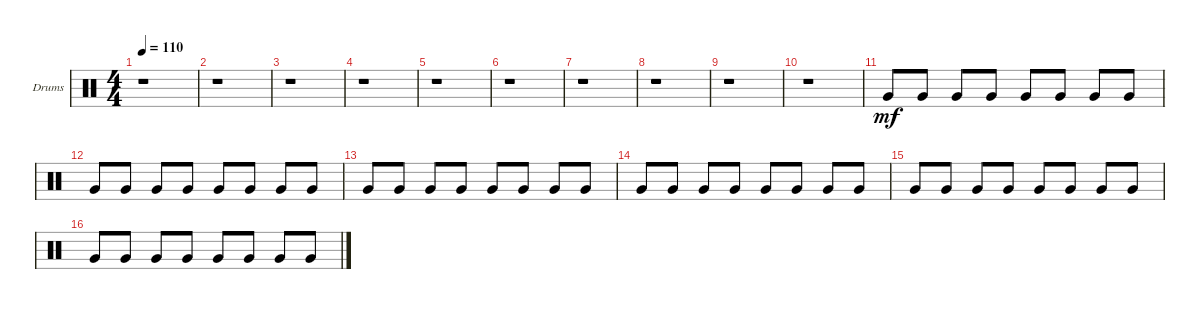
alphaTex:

\defaultSystemsLayout 4
\bracketExtendMode groupsimilarinstruments
\firstSystemTrackNameOrientation horizontal
\otherSystemsTrackNameOrientation horizontal
\track ("Fabrizio" "Drums") {instrument percussion}
\staff {score}
\articulation defaults
\ts (4 4)
\tempo 110
\clef neutral
\ks c
r.1{dy mf} |
r.1 |
r.1 |
r.1 |
r.1 |
r.1 |
r.1 |
r.1 |
r.1 |
r.1 |
"Very Low Tom (hit)".8 "Very Low Tom (hit)".8 "Very Low Tom (hit)".8 "Very Low Tom (hit)".8 "Very Low Tom (hit)".8 "Very Low Tom (hit)".8 "Very Low Tom (hit)".8 "Very Low Tom (hit)".8 |
"Very Low Tom (hit)".8 "Very Low Tom (hit)".8 "Very Low Tom (hit)".8 "Very Low Tom (hit)".8 "Very Low Tom (hit)".8 "Very Low Tom (hit)".8 "Very Low Tom (hit)".8 "Very Low Tom (hit)".8 |
"Very Low Tom (hit)".8 "Very Low Tom (hit)".8 "Very Low Tom (hit)".8 "Very Low Tom (hit)".8 "Very Low Tom (hit)".8 "Very Low Tom (hit)".8 "Very Low Tom (hit)".8 "Very Low Tom (hit)".8 |
"Very Low Tom (hit)".8 "Very Low Tom (hit)".8 "Very Low Tom (hit)".8 "Very Low Tom (hit)".8 "Very Low Tom (hit)".8 "Very Low Tom (hit)".8 "Very Low Tom (hit)".8 "Very Low Tom (hit)".8 |
"Very Low Tom (hit)".8 "Very Low Tom (hit)".8 "Very Low Tom (hit)".8 "Very Low Tom (hit)".8 "Very Low Tom (hit)".8 "Very Low Tom (hit)".8 "Very Low Tom (hit)".8 "Very Low Tom (hit)".8 |
"Very Low Tom (hit)".8 "Very Low Tom (hit)".8 "Very Low Tom (hit)".8 "Very Low Tom (hit)".8 "Very Low Tom (hit)".8 "Very Low Tom (hit)".8 "Very Low Tom (hit)".8 "Very Low Tom (hit)".8
